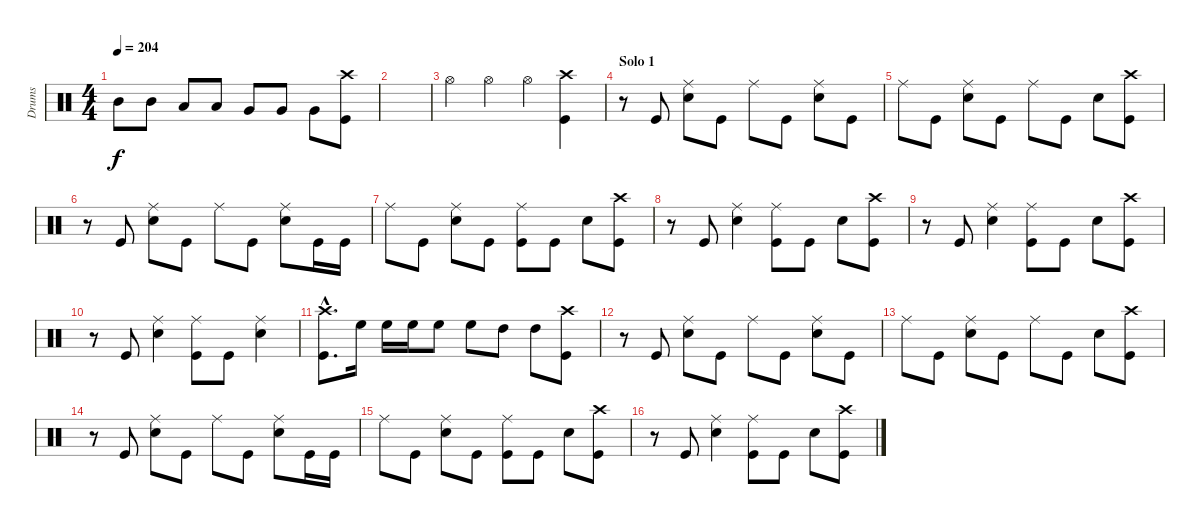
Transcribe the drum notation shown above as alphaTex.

\track ("Drums" "Drums") {instrument percussion}
\staff {score}
\articulation defaults
\ts (4 4)
\tempo 204
\clef neutral
\ks c "Mid Tom (hit)".8{dy f} "Mid Tom (hit)".8 "Low Tom (hit)".8 "Low Tom (hit)".8 "Very Low Tom (hit)".8 "Very Low Tom (hit)".8 "Very Low Tom (hit)".8
("Crash high (hit)" "Kick (hit)").8 |
|
"Hi-Hat (open)".4 "Hi-Hat (open)".4 "Hi-Hat (open)".4 ("Crash high (hit)" "Kick (hit)").4 |
\section ("" "Solo 1")
r.8 "Kick (hit)".8 ("Ride (middle)" "Snare (hit) 2").8 "Kick (hit)".8 "Ride (middle)".8 "Kick (hit)".8 ("Ride (middle)" "Snare (hit) 2").8 "Kick (hit)".8 |
"Ride (middle)".8 "Kick (hit)".8 ("Ride (middle)" "Snare (hit) 2").8 "Kick (hit)".8 "Ride (middle)".8 "Kick (hit)".8 "Snare (hit) 2".8 ("Crash high (hit)" "Kick (hit)").8 |
r.8 "Kick (hit)".8 ("Ride (middle)" "Snare (hit) 2").8 "Kick (hit)".8 "Ride (middle)".8 "Kick (hit)".8 ("Ride (middle)" "Snare (hit) 2").8 "Kick (hit)".16 "Kick (hit)".16 |
"Ride (middle)".8 "Kick (hit)".8 ("Ride (middle)" "Snare (hit) 2").8 "Kick (hit)".8 ("Ride (middle)" "Kick (hit)").8 "Kick (hit)".8 "Snare (hit) 2".8 ("Crash high (hit)" "Kick (hit)").8 |
r.8 "Kick (hit)".8 ("Ride (middle)" "Snare (hit) 2").4 ("Ride (middle)" "Kick (hit)").8 "Kick (hit)".8 "Snare (hit) 2".8 ("Crash high (hit)" "Kick (hit)").8 |
r.8 "Kick (hit)".8 ("Ride (middle)" "Snare (hit) 2").4 ("Ride (middle)" "Kick (hit)").8 "Kick (hit)".8 "Snare (hit) 2".8 ("Crash high (hit)" "Kick (hit)").8 |
r.8 "Kick (hit)".8 ("Ride (middle)" "Snare (hit) 2").4 ("Ride (middle)" "Kick (hit)").8 "Kick (hit)".8 ("Ride (middle)" "Snare (hit) 2").4 |
("Crash high (hit)"{hac} "Kick (hit)"{hac}).8{d} "High Floor Tom (hit)".16 "High Floor Tom (hit)".16 "High Floor Tom (hit)".16 "High Floor Tom (hit)".8 "High Floor Tom (hit)".8 "High Tom (hit)".8 "High Tom (hit)".8 ("Crash high (hit)" "Kick (hit)").8 |
r.8 "Kick (hit)".8 ("Ride (middle)" "Snare (hit) 2").8 "Kick (hit)".8 "Ride (middle)".8 "Kick (hit)".8 ("Ride (middle)" "Snare (hit) 2").8 "Kick (hit)".8 |
"Ride (middle)".8 "Kick (hit)".8 ("Ride (middle)" "Snare (hit) 2").8 "Kick (hit)".8 "Ride (middle)".8 "Kick (hit)".8 "Snare (hit) 2".8 ("Crash high (hit)" "Kick (hit)").8 |
r.8 "Kick (hit)".8 ("Ride (middle)" "Snare (hit) 2").8 "Kick (hit)".8 "Ride (middle)".8 "Kick (hit)".8 ("Ride (middle)" "Snare (hit) 2").8 "Kick (hit)".16 "Kick (hit)".16 |
"Ride (middle)".8 "Kick (hit)".8 ("Ride (middle)" "Snare (hit) 2").8 "Kick (hit)".8 ("Ride (middle)" "Kick (hit)").8 "Kick (hit)".8 "Snare (hit) 2".8 ("Crash high (hit)" "Kick (hit)").8 |
r.8 "Kick (hit)".8 ("Ride (middle)" "Snare (hit) 2").4 ("Ride (middle)" "Kick (hit)").8 "Kick (hit)".8 "Snare (hit) 2".8 ("Crash high (hit)" "Kick (hit)").8
